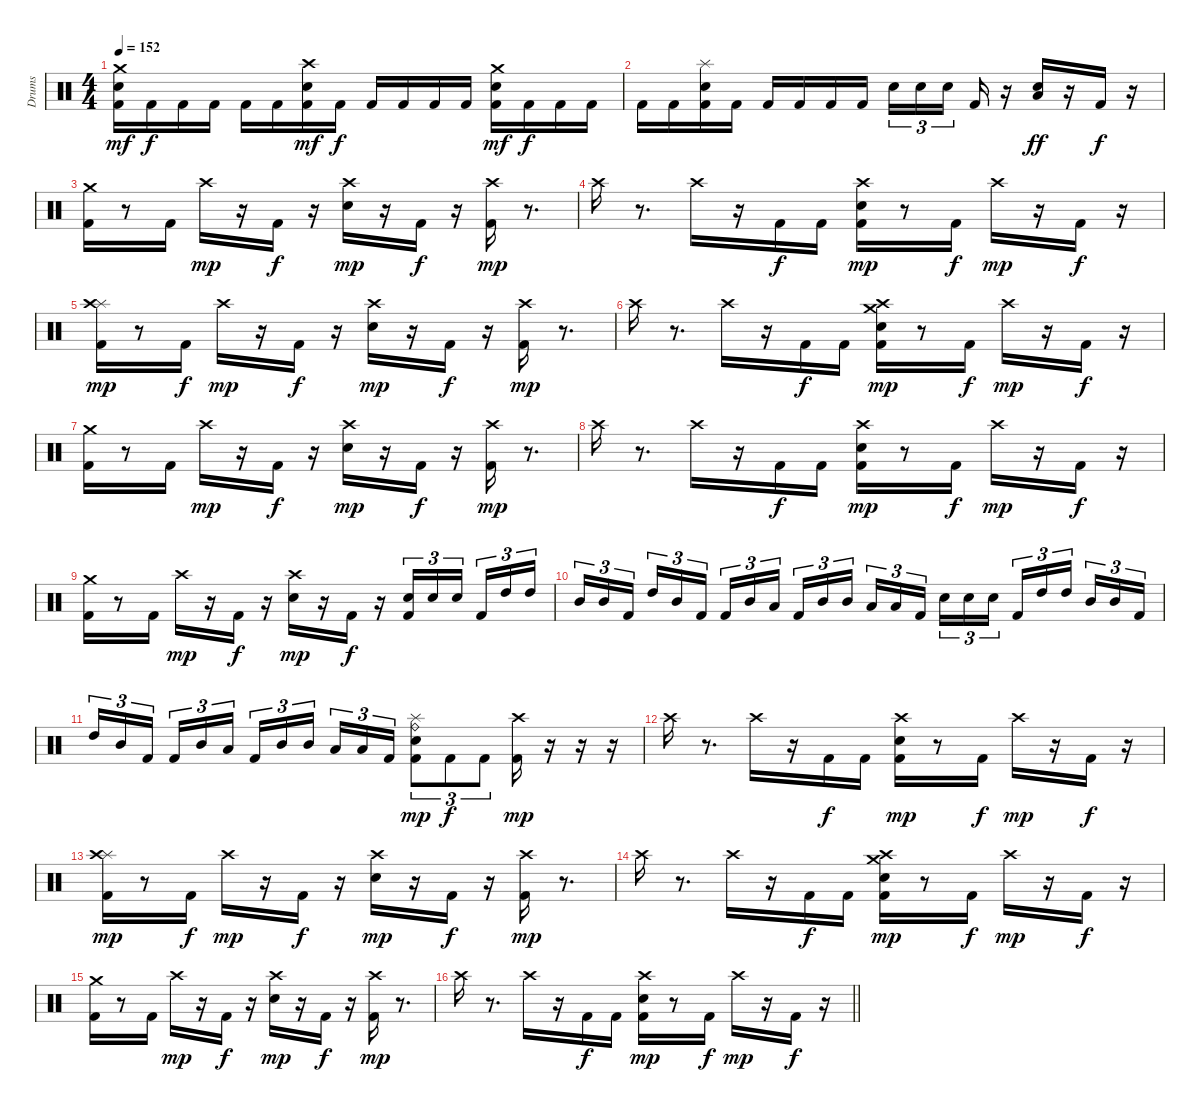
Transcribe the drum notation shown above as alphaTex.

\track ("Drums" "Drums") {instrument percussion}
\staff {score}
\articulation defaults
\ts (4 4)
\tempo 152
\clef neutral
\ks c
("Crash medium (hit)" "Snare (hit) 2" "Kick (hit) 2").16{dy mf} "Kick (hit) 2".16{dy f} "Kick (hit) 2".16 "Kick (hit) 2".16 "Kick (hit) 2".16 "Kick (hit) 2".16 ("Crash high (hit)" "Snare (hit) 2" "Kick (hit) 2").16{dy mf} "Kick (hit) 2".16{dy f} "Kick (hit) 2".16 "Kick (hit) 2".16 "Kick (hit) 2".16 "Kick (hit) 2".16 ("Crash medium (hit)" "Snare (hit) 2" "Kick (hit) 2").16{dy mf} "Kick (hit) 2".16{dy f} "Kick (hit) 2".16 "Kick (hit) 2".16 |
"Kick (hit) 2".16 "Kick (hit) 2".16 ("Splash (hit)" "Snare (hit) 2" "Kick (hit) 2").16 "Kick (hit) 2".16 "Kick (hit) 2".16 "Kick (hit) 2".16 "Kick (hit) 2".16 "Kick (hit) 2".16 "Snare (hit) 2".16{tu (3 2)} "Snare (hit) 2".16{tu (3 2)} "Snare (hit) 2".16{tu (3 2)} "Kick (hit) 2".16 r.16 ("Low Floor Tom (hit)" "Snare (hit) 2").16{dy ff} r.16 "Kick (hit) 2".16{dy f} r.16 |
("Crash medium (hit)" "Kick (hit) 2").16 r.8 "Kick (hit) 2".16 "Crash high (hit)".16{dy mp} r.16 "Kick (hit) 2".16{dy f} r.16 ("Crash high (hit)" "Snare (hit) 2").16{dy mp} r.16 "Kick (hit) 2".16{dy f} r.16 ("Crash high (hit)" "Kick (hit) 2").16{dy mp} r.8{d} |
"Crash high (hit)".16 r.8{d} "Crash high (hit)".16 r.16 "Kick (hit) 2".16{dy f} "Kick (hit) 2".16 ("Crash high (hit)" "Snare (hit) 2" "Kick (hit) 2").16{dy mp} r.8 "Kick (hit) 2".16{dy f} "Crash high (hit)".16{dy mp} r.16 "Kick (hit) 2".16{dy f} r.16 |
("Splash (hit)" "Crash high (hit)" "Kick (hit) 2").16{dy mp} r.8 "Kick (hit) 2".16{dy f} "Crash high (hit)".16{dy mp} r.16 "Kick (hit) 2".16{dy f} r.16 ("Crash high (hit)" "Snare (hit) 2").16{dy mp} r.16 "Kick (hit) 2".16{dy f} r.16 ("Crash high (hit)" "Kick (hit) 2").16{dy mp} r.8{d} |
"Crash high (hit)".16 r.8{d} "Crash high (hit)".16 r.16 "Kick (hit) 2".16{dy f} "Kick (hit) 2".16 ("Crash medium (hit)" "Crash high (hit)" "Snare (hit) 2" "Kick (hit) 2").16{dy mp} r.8 "Kick (hit) 2".16{dy f} "Crash high (hit)".16{dy mp} r.16 "Kick (hit) 2".16{dy f} r.16 |
("Crash medium (hit)" "Kick (hit) 2").16 r.8 "Kick (hit) 2".16 "Crash high (hit)".16{dy mp} r.16 "Kick (hit) 2".16{dy f} r.16 ("Crash high (hit)" "Snare (hit) 2").16{dy mp} r.16 "Kick (hit) 2".16{dy f} r.16 ("Crash high (hit)" "Kick (hit) 2").16{dy mp} r.8{d} |
"Crash high (hit)".16 r.8{d} "Crash high (hit)".16 r.16 "Kick (hit) 2".16{dy f} "Kick (hit) 2".16 ("Crash high (hit)" "Snare (hit) 2" "Kick (hit) 2").16{dy mp} r.8 "Kick (hit) 2".16{dy f} "Crash high (hit)".16{dy mp} r.16 "Kick (hit) 2".16{dy f} r.16 |
("Crash medium (hit)" "Kick (hit) 2").16 r.8 "Kick (hit) 2".16 "Crash high (hit)".16{dy mp} r.16 "Kick (hit) 2".16{dy f} r.16 ("Crash high (hit)" "Snare (hit) 2").16{dy mp} r.16 "Kick (hit) 2".16{dy f} r.16 ("Snare (hit) 2" "Kick (hit) 2").16{tu (3 2)} "Snare (hit) 2".16{tu (3 2)} "Snare (hit) 2".16{tu (3 2)} "Kick (hit) 2".16{tu (3 2)} "High Tom (hit)".16{tu (3 2)} "High Tom (hit)".16{tu (3 2)} |
"Mid Tom (hit)".16{tu (3 2)} "Mid Tom (hit)".16{tu (3 2)} "Kick (hit) 2".16{tu (3 2)} "High Tom (hit)".16{tu (3 2)} "Mid Tom (hit)".16{tu (3 2)} "Kick (hit) 2".16{tu (3 2)} "Kick (hit) 2".16{tu (3 2)} "Mid Tom (hit)".16{tu (3 2)} "Low Tom (hit)".16{tu (3 2)} "Kick (hit) 2".16{tu (3 2)} "Mid Tom (hit)".16{tu (3 2)} "Mid Tom (hit)".16{tu (3 2)} "Low Tom (hit)".16{tu (3 2)} "Low Tom (hit)".16{tu (3 2)} "Kick (hit) 2".16{tu (3 2)} "Snare (hit) 2".16{tu (3 2)} "Snare (hit) 2".16{tu (3 2)} "Snare (hit) 2".16{tu (3 2)} "Kick (hit) 2".16{tu (3 2)} "High Tom (hit)".16{tu (3 2)} "High Tom (hit)".16{tu (3 2)} "Mid Tom (hit)".16{tu (3 2)} "Mid Tom (hit)".16{tu (3 2)} "Kick (hit) 2".16{tu (3 2)} |
"High Tom (hit)".16{tu (3 2)} "Mid Tom (hit)".16{tu (3 2)} "Kick (hit) 2".16{tu (3 2)} "Kick (hit) 2".16{tu (3 2)} "Mid Tom (hit)".16{tu (3 2)} "Low Tom (hit)".16{tu (3 2)} "Kick (hit) 2".16{tu (3 2)} "Mid Tom (hit)".16{tu (3 2)} "Mid Tom (hit)".16{tu (3 2)} "Low Tom (hit)".16{tu (3 2)} "Low Tom (hit)".16{tu (3 2)} "Kick (hit) 2".16{tu (3 2)} ("Splash (hit)" "Ride (bell)" "Snare (hit) 2" "Kick (hit) 2").8{tu (3 2) dy mp} "Kick (hit) 2".8{tu (3 2) dy f} "Kick (hit) 2".8{tu (3 2)} ("Crash high (hit)" "Kick (hit) 2").16{dy mp} r.16 r.16 r.16 |
"Crash high (hit)".16 r.8{d} "Crash high (hit)".16 r.16 "Kick (hit) 2".16{dy f} "Kick (hit) 2".16 ("Crash high (hit)" "Snare (hit) 2" "Kick (hit) 2").16{dy mp} r.8 "Kick (hit) 2".16{dy f} "Crash high (hit)".16{dy mp} r.16 "Kick (hit) 2".16{dy f} r.16 |
("Splash (hit)" "Crash high (hit)" "Kick (hit) 2").16{dy mp} r.8 "Kick (hit) 2".16{dy f} "Crash high (hit)".16{dy mp} r.16 "Kick (hit) 2".16{dy f} r.16 ("Crash high (hit)" "Snare (hit) 2").16{dy mp} r.16 "Kick (hit) 2".16{dy f} r.16 ("Crash high (hit)" "Kick (hit) 2").16{dy mp} r.8{d} |
"Crash high (hit)".16 r.8{d} "Crash high (hit)".16 r.16 "Kick (hit) 2".16{dy f} "Kick (hit) 2".16 ("Crash medium (hit)" "Crash high (hit)" "Snare (hit) 2" "Kick (hit) 2").16{dy mp} r.8 "Kick (hit) 2".16{dy f} "Crash high (hit)".16{dy mp} r.16 "Kick (hit) 2".16{dy f} r.16 |
("Crash medium (hit)" "Kick (hit) 2").16 r.8 "Kick (hit) 2".16 "Crash high (hit)".16{dy mp} r.16 "Kick (hit) 2".16{dy f} r.16 ("Crash high (hit)" "Snare (hit) 2").16{dy mp} r.16 "Kick (hit) 2".16{dy f} r.16 ("Crash high (hit)" "Kick (hit) 2").16{dy mp} r.8{d} |
\barLineRight lightlight "Crash high (hit)".16
r.8{d} "Crash high (hit)".16 r.16 "Kick (hit) 2".16{dy f} "Kick (hit) 2".16 ("Crash high (hit)" "Snare (hit) 2" "Kick (hit) 2").16{dy mp} r.8 "Kick (hit) 2".16{dy f} "Crash high (hit)".16{dy mp} r.16 "Kick (hit) 2".16{dy f} r.16
